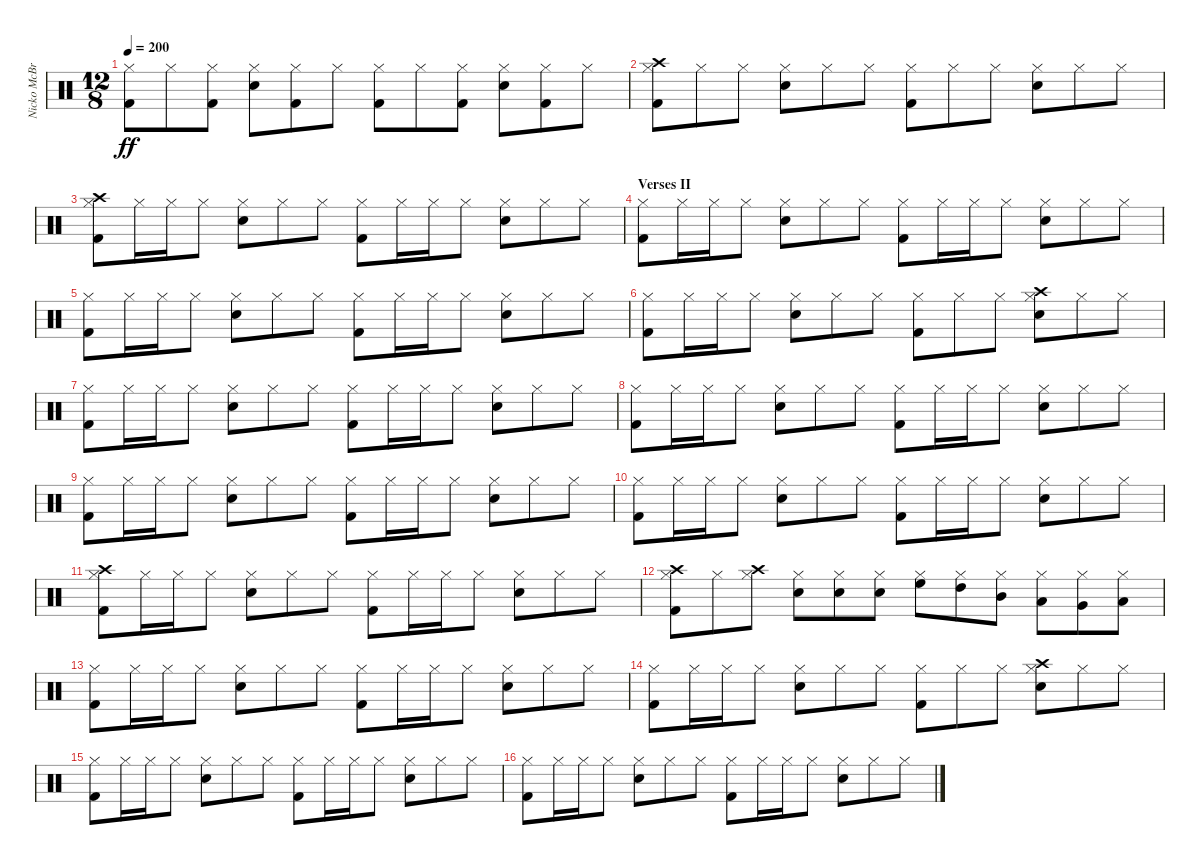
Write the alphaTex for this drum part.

\track ("Nicko McBrain" "Nicko McBr") {instrument percussion}
\staff {score}
\articulation defaults
\ts (12 8)
\tempo 200
\clef neutral
\ks c
("Kick (hit) 2" "Hi-Hat (closed)").8{dy ff} "Hi-Hat (closed)".8 ("Kick (hit) 2" "Hi-Hat (closed)").8 ("Snare (hit) 2" "Hi-Hat (closed)").8 ("Kick (hit) 2" "Hi-Hat (closed)").8 "Hi-Hat (closed)".8 ("Kick (hit) 2" "Hi-Hat (closed)").8 "Hi-Hat (closed)".8 ("Kick (hit) 2" "Hi-Hat (closed)").8 ("Snare (hit) 2" "Hi-Hat (closed)").8 ("Kick (hit) 2" "Hi-Hat (closed)").8 "Hi-Hat (closed)".8 |
("Kick (hit) 2" "Hi-Hat (closed)" "Crash high (hit)").8 "Hi-Hat (closed)".8 "Hi-Hat (closed)".8 ("Snare (hit) 2" "Hi-Hat (closed)").8 "Hi-Hat (closed)".8 "Hi-Hat (closed)".8 ("Kick (hit) 2" "Hi-Hat (closed)").8 "Hi-Hat (closed)".8 "Hi-Hat (closed)".8 ("Snare (hit) 2" "Hi-Hat (closed)").8 "Hi-Hat (closed)".8 "Hi-Hat (closed)".8 |
("Kick (hit) 2" "Hi-Hat (closed)" "Crash high (hit)").8 "Hi-Hat (closed)".16 "Hi-Hat (closed)".16 "Hi-Hat (closed)".8 ("Snare (hit) 2" "Hi-Hat (closed)").8 "Hi-Hat (closed)".8 "Hi-Hat (closed)".8 ("Kick (hit) 2" "Hi-Hat (closed)").8 "Hi-Hat (closed)".16 "Hi-Hat (closed)".16 "Hi-Hat (closed)".8 ("Snare (hit) 2" "Hi-Hat (closed)").8 "Hi-Hat (closed)".8 "Hi-Hat (closed)".8 |
\section ("" "Verses II")
("Kick (hit) 2" "Hi-Hat (closed)").8 "Hi-Hat (closed)".16 "Hi-Hat (closed)".16 "Hi-Hat (closed)".8 ("Snare (hit) 2" "Hi-Hat (closed)").8 "Hi-Hat (closed)".8 "Hi-Hat (closed)".8 ("Kick (hit) 2" "Hi-Hat (closed)").8 "Hi-Hat (closed)".16 "Hi-Hat (closed)".16 "Hi-Hat (closed)".8 ("Snare (hit) 2" "Hi-Hat (closed)").8 "Hi-Hat (closed)".8 "Hi-Hat (closed)".8 |
("Kick (hit) 2" "Hi-Hat (closed)").8 "Hi-Hat (closed)".16 "Hi-Hat (closed)".16 "Hi-Hat (closed)".8 ("Snare (hit) 2" "Hi-Hat (closed)").8 "Hi-Hat (closed)".8 "Hi-Hat (closed)".8 ("Kick (hit) 2" "Hi-Hat (closed)").8 "Hi-Hat (closed)".16 "Hi-Hat (closed)".16 "Hi-Hat (closed)".8 ("Snare (hit) 2" "Hi-Hat (closed)").8 "Hi-Hat (closed)".8 "Hi-Hat (closed)".8 |
("Kick (hit) 2" "Hi-Hat (closed)").8 "Hi-Hat (closed)".16 "Hi-Hat (closed)".16 "Hi-Hat (closed)".8 ("Snare (hit) 2" "Hi-Hat (closed)").8 "Hi-Hat (closed)".8 "Hi-Hat (closed)".8 ("Kick (hit) 2" "Hi-Hat (closed)").8 "Hi-Hat (closed)".8 "Hi-Hat (closed)".8 ("Snare (hit) 2" "Hi-Hat (closed)" "Crash high (hit)").8 "Hi-Hat (closed)".8 "Hi-Hat (closed)".8 |
("Kick (hit) 2" "Hi-Hat (closed)").8 "Hi-Hat (closed)".16 "Hi-Hat (closed)".16 "Hi-Hat (closed)".8 ("Snare (hit) 2" "Hi-Hat (closed)").8 "Hi-Hat (closed)".8 "Hi-Hat (closed)".8 ("Kick (hit) 2" "Hi-Hat (closed)").8 "Hi-Hat (closed)".16 "Hi-Hat (closed)".16 "Hi-Hat (closed)".8 ("Snare (hit) 2" "Hi-Hat (closed)").8 "Hi-Hat (closed)".8 "Hi-Hat (closed)".8 |
("Kick (hit) 2" "Hi-Hat (closed)").8 "Hi-Hat (closed)".16 "Hi-Hat (closed)".16 "Hi-Hat (closed)".8 ("Snare (hit) 2" "Hi-Hat (closed)").8 "Hi-Hat (closed)".8 "Hi-Hat (closed)".8 ("Kick (hit) 2" "Hi-Hat (closed)").8 "Hi-Hat (closed)".16 "Hi-Hat (closed)".16 "Hi-Hat (closed)".8 ("Snare (hit) 2" "Hi-Hat (closed)").8 "Hi-Hat (closed)".8 "Hi-Hat (closed)".8 |
("Kick (hit) 2" "Hi-Hat (closed)").8 "Hi-Hat (closed)".16 "Hi-Hat (closed)".16 "Hi-Hat (closed)".8 ("Snare (hit) 2" "Hi-Hat (closed)").8 "Hi-Hat (closed)".8 "Hi-Hat (closed)".8 ("Kick (hit) 2" "Hi-Hat (closed)").8 "Hi-Hat (closed)".16 "Hi-Hat (closed)".16 "Hi-Hat (closed)".8 ("Snare (hit) 2" "Hi-Hat (closed)").8 "Hi-Hat (closed)".8 "Hi-Hat (closed)".8 |
("Kick (hit) 2" "Hi-Hat (closed)").8 "Hi-Hat (closed)".16 "Hi-Hat (closed)".16 "Hi-Hat (closed)".8 ("Snare (hit) 2" "Hi-Hat (closed)").8 "Hi-Hat (closed)".8 "Hi-Hat (closed)".8 ("Kick (hit) 2" "Hi-Hat (closed)").8 "Hi-Hat (closed)".16 "Hi-Hat (closed)".16 "Hi-Hat (closed)".8 ("Snare (hit) 2" "Hi-Hat (closed)").8 "Hi-Hat (closed)".8 "Hi-Hat (closed)".8 |
("Kick (hit) 2" "Hi-Hat (closed)" "Crash high (hit)").8 "Hi-Hat (closed)".16 "Hi-Hat (closed)".16 "Hi-Hat (closed)".8 ("Snare (hit) 2" "Hi-Hat (closed)").8 "Hi-Hat (closed)".8 "Hi-Hat (closed)".8 ("Kick (hit) 2" "Hi-Hat (closed)").8 "Hi-Hat (closed)".16 "Hi-Hat (closed)".16 "Hi-Hat (closed)".8 ("Snare (hit) 2" "Hi-Hat (closed)").8 "Hi-Hat (closed)".8 "Hi-Hat (closed)".8 |
("Kick (hit) 2" "Hi-Hat (closed)" "Crash high (hit)").8 "Hi-Hat (closed)".8 ("Hi-Hat (closed)" "Crash high (hit)").8 ("Snare (hit) 2" "Hi-Hat (closed)").8 ("Snare (hit) 2" "Hi-Hat (closed)").8 ("Snare (hit) 2" "Hi-Hat (closed)").8 ("Hi-Hat (closed)" "High Floor Tom (hit)").8 ("Hi-Hat (closed)" "High Tom (hit)").8 ("Hi-Hat (closed)" "Mid Tom (hit)").8 ("Hi-Hat (closed)" "Low Tom (hit)").8 ("Hi-Hat (closed)" "Very Low Tom (hit)").8 ("Low Floor Tom (hit)" "Hi-Hat (closed)").8 |
("Kick (hit) 2" "Hi-Hat (closed)").8 "Hi-Hat (closed)".16 "Hi-Hat (closed)".16 "Hi-Hat (closed)".8 ("Snare (hit) 2" "Hi-Hat (closed)").8 "Hi-Hat (closed)".8 "Hi-Hat (closed)".8 ("Kick (hit) 2" "Hi-Hat (closed)").8 "Hi-Hat (closed)".16 "Hi-Hat (closed)".16 "Hi-Hat (closed)".8 ("Snare (hit) 2" "Hi-Hat (closed)").8 "Hi-Hat (closed)".8 "Hi-Hat (closed)".8 |
("Kick (hit) 2" "Hi-Hat (closed)").8 "Hi-Hat (closed)".16 "Hi-Hat (closed)".16 "Hi-Hat (closed)".8 ("Snare (hit) 2" "Hi-Hat (closed)").8 "Hi-Hat (closed)".8 "Hi-Hat (closed)".8 ("Kick (hit) 2" "Hi-Hat (closed)").8 "Hi-Hat (closed)".8 "Hi-Hat (closed)".8 ("Snare (hit) 2" "Hi-Hat (closed)" "Crash high (hit)").8 "Hi-Hat (closed)".8 "Hi-Hat (closed)".8 |
("Kick (hit) 2" "Hi-Hat (closed)").8 "Hi-Hat (closed)".16 "Hi-Hat (closed)".16 "Hi-Hat (closed)".8 ("Snare (hit) 2" "Hi-Hat (closed)").8 "Hi-Hat (closed)".8 "Hi-Hat (closed)".8 ("Kick (hit) 2" "Hi-Hat (closed)").8 "Hi-Hat (closed)".16 "Hi-Hat (closed)".16 "Hi-Hat (closed)".8 ("Snare (hit) 2" "Hi-Hat (closed)").8 "Hi-Hat (closed)".8 "Hi-Hat (closed)".8 |
("Kick (hit) 2" "Hi-Hat (closed)").8 "Hi-Hat (closed)".16 "Hi-Hat (closed)".16 "Hi-Hat (closed)".8 ("Snare (hit) 2" "Hi-Hat (closed)").8 "Hi-Hat (closed)".8 "Hi-Hat (closed)".8 ("Kick (hit) 2" "Hi-Hat (closed)").8 "Hi-Hat (closed)".16 "Hi-Hat (closed)".16 "Hi-Hat (closed)".8 ("Snare (hit) 2" "Hi-Hat (closed)").8 "Hi-Hat (closed)".8 "Hi-Hat (closed)".8
